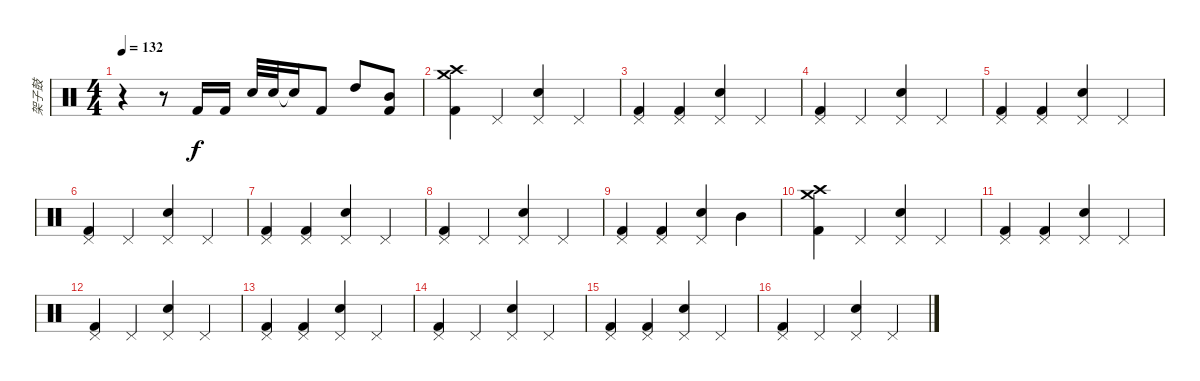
\track ("架子鼓" "架子鼓") {instrument percussion}
\staff {score}
\articulation defaults
\ts (4 4)
\tempo 132
\clef neutral
\ks c
r.4{dy f} r.8 "Kick (hit) 2".16 "Kick (hit) 2".16 "Electric Snare (hit)".32 "Electric Snare (hit)".32 "Snare (hit)"{t}.16 "Kick (hit) 2".8 "High Tom (hit)".8 ("Mid Tom (hit)" "Kick (hit) 2").8 |
("Crash medium (hit)" "Crash high (hit)" "Kick (hit) 2").4 "Pedal Hi-Hat (hit)".4 ("Pedal Hi-Hat (hit)" "Electric Snare (hit)").4 "Pedal Hi-Hat (hit)".4 |
("Pedal Hi-Hat (hit)" "Kick (hit) 2").4 ("Pedal Hi-Hat (hit)" "Kick (hit) 2").4 ("Pedal Hi-Hat (hit)" "Electric Snare (hit)").4 "Pedal Hi-Hat (hit)".4 |
("Pedal Hi-Hat (hit)" "Kick (hit) 2").4 "Pedal Hi-Hat (hit)".4 ("Pedal Hi-Hat (hit)" "Electric Snare (hit)").4 "Pedal Hi-Hat (hit)".4 |
("Pedal Hi-Hat (hit)" "Kick (hit) 2").4 ("Pedal Hi-Hat (hit)" "Kick (hit) 2").4 ("Pedal Hi-Hat (hit)" "Electric Snare (hit)").4 "Pedal Hi-Hat (hit)".4 |
("Pedal Hi-Hat (hit)" "Kick (hit) 2").4 "Pedal Hi-Hat (hit)".4 ("Pedal Hi-Hat (hit)" "Electric Snare (hit)").4 "Pedal Hi-Hat (hit)".4 |
("Pedal Hi-Hat (hit)" "Kick (hit) 2").4 ("Pedal Hi-Hat (hit)" "Kick (hit) 2").4 ("Pedal Hi-Hat (hit)" "Electric Snare (hit)").4 "Pedal Hi-Hat (hit)".4 |
("Pedal Hi-Hat (hit)" "Kick (hit) 2").4 "Pedal Hi-Hat (hit)".4 ("Pedal Hi-Hat (hit)" "Electric Snare (hit)").4 "Pedal Hi-Hat (hit)".4 |
("Pedal Hi-Hat (hit)" "Kick (hit) 2").4 ("Pedal Hi-Hat (hit)" "Kick (hit) 2").4 ("Pedal Hi-Hat (hit)" "Electric Snare (hit)").4 "Mid Tom (hit)".4 |
("Crash medium (hit)" "Crash high (hit)" "Kick (hit) 2").4 "Pedal Hi-Hat (hit)".4 ("Pedal Hi-Hat (hit)" "Electric Snare (hit)").4 "Pedal Hi-Hat (hit)".4 |
("Pedal Hi-Hat (hit)" "Kick (hit) 2").4 ("Pedal Hi-Hat (hit)" "Kick (hit) 2").4 ("Pedal Hi-Hat (hit)" "Electric Snare (hit)").4 "Pedal Hi-Hat (hit)".4 |
("Pedal Hi-Hat (hit)" "Kick (hit) 2").4 "Pedal Hi-Hat (hit)".4 ("Pedal Hi-Hat (hit)" "Electric Snare (hit)").4 "Pedal Hi-Hat (hit)".4 |
("Pedal Hi-Hat (hit)" "Kick (hit) 2").4 ("Pedal Hi-Hat (hit)" "Kick (hit) 2").4 ("Pedal Hi-Hat (hit)" "Electric Snare (hit)").4 "Pedal Hi-Hat (hit)".4 |
("Pedal Hi-Hat (hit)" "Kick (hit) 2").4 "Pedal Hi-Hat (hit)".4 ("Pedal Hi-Hat (hit)" "Electric Snare (hit)").4 "Pedal Hi-Hat (hit)".4 |
("Pedal Hi-Hat (hit)" "Kick (hit) 2").4 ("Pedal Hi-Hat (hit)" "Kick (hit) 2").4 ("Pedal Hi-Hat (hit)" "Electric Snare (hit)").4 "Pedal Hi-Hat (hit)".4 |
("Pedal Hi-Hat (hit)" "Kick (hit) 2").4 "Pedal Hi-Hat (hit)".4 ("Pedal Hi-Hat (hit)" "Electric Snare (hit)").4 "Pedal Hi-Hat (hit)".4
